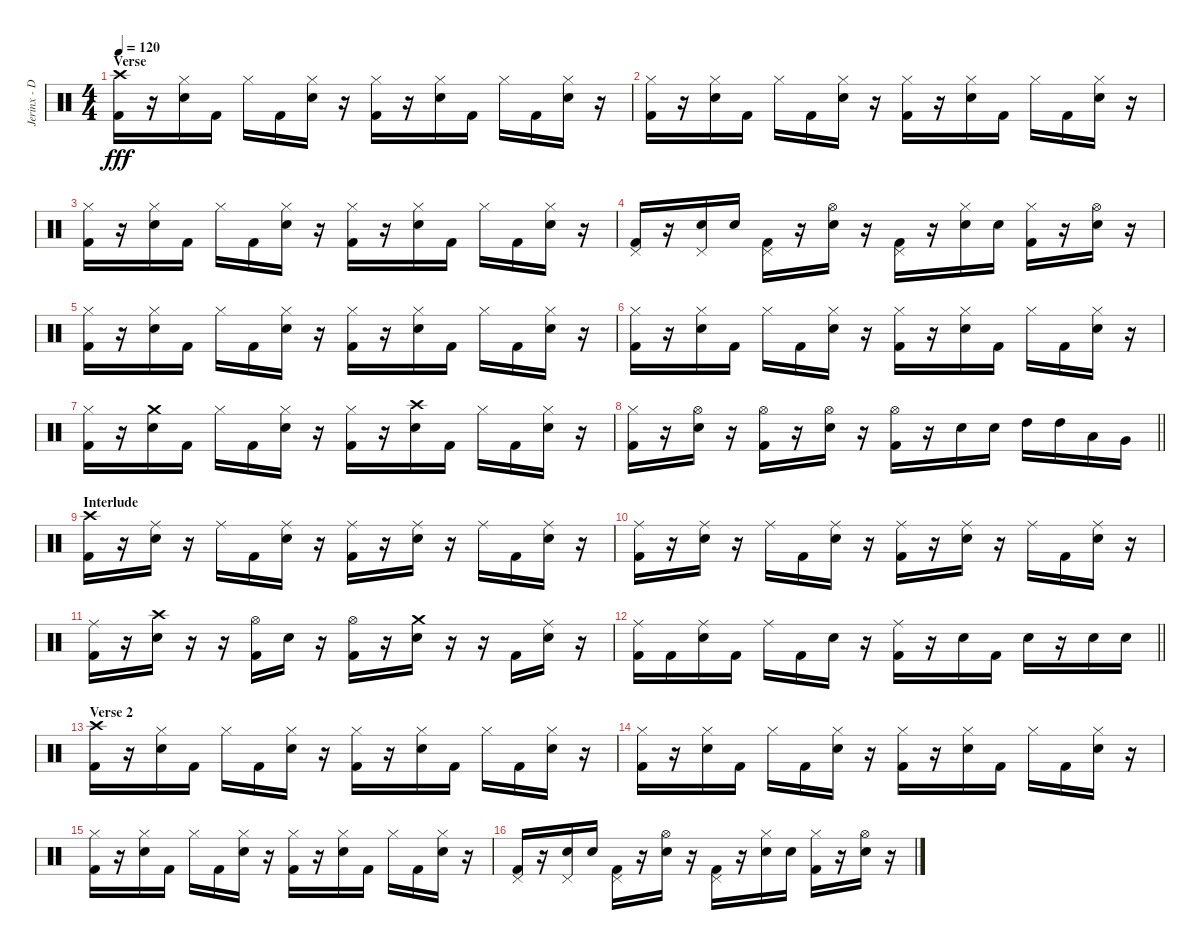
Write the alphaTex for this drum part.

\track ("Jerinx - Drum" "Jerinx - D") {instrument percussion}
\staff {score}
\articulation defaults
\ts (4 4)
\section ("" "Verse")
\tempo 120
\clef neutral
\ks c
("Kick (hit) 2" "Crash high (hit)").16{dy fff} r.16 ("Hi-Hat (closed)" "Snare (hit) 2").16 "Kick (hit) 2".16 "Hi-Hat (closed)".16 "Kick (hit) 2".16 ("Hi-Hat (closed)" "Snare (hit) 2").16 r.16 ("Hi-Hat (closed)" "Kick (hit) 2").16 r.16 ("Hi-Hat (closed)" "Snare (hit) 2").16 "Kick (hit) 2".16 "Hi-Hat (closed)".16 "Kick (hit) 2".16 ("Hi-Hat (closed)" "Snare (hit) 2").16 r.16 |
("Hi-Hat (closed)" "Kick (hit) 2").16 r.16 ("Hi-Hat (closed)" "Snare (hit) 2").16 "Kick (hit) 2".16 "Hi-Hat (closed)".16 "Kick (hit) 2".16 ("Hi-Hat (closed)" "Snare (hit) 2").16 r.16 ("Hi-Hat (closed)" "Kick (hit) 2").16 r.16 ("Hi-Hat (closed)" "Snare (hit) 2").16 "Kick (hit) 2".16 "Hi-Hat (closed)".16 "Kick (hit) 2".16 ("Hi-Hat (closed)" "Snare (hit) 2").16 r.16 |
("Hi-Hat (closed)" "Kick (hit) 2").16 r.16 ("Hi-Hat (closed)" "Snare (hit) 2").16 "Kick (hit) 2".16 "Hi-Hat (closed)".16 "Kick (hit) 2".16 ("Hi-Hat (closed)" "Snare (hit) 2").16 r.16 ("Hi-Hat (closed)" "Kick (hit) 2").16 r.16 ("Hi-Hat (closed)" "Snare (hit) 2").16 "Kick (hit) 2".16 "Hi-Hat (closed)".16 "Kick (hit) 2".16 ("Hi-Hat (closed)" "Snare (hit) 2").16 r.16 |
("Pedal Hi-Hat (hit)" "Kick (hit) 2").16 r.16 ("Pedal Hi-Hat (hit)" "Snare (hit) 2").16 "Snare (hit) 2".16 ("Pedal Hi-Hat (hit)" "Kick (hit) 2").16 r.16 ("Hi-Hat (open)" "Snare (hit) 2").16 r.16 ("Pedal Hi-Hat (hit)" "Kick (hit) 2").16 r.16 ("Hi-Hat (closed)" "Snare (hit) 2").16 "Snare (hit) 2".16 ("Hi-Hat (closed)" "Kick (hit) 2").16 r.16 ("Hi-Hat (open)" "Snare (hit) 2").16 r.16 |
("Hi-Hat (closed)" "Kick (hit) 2").16 r.16 ("Hi-Hat (closed)" "Snare (hit) 2").16 "Kick (hit) 2".16 "Hi-Hat (closed)".16 "Kick (hit) 2".16 ("Hi-Hat (closed)" "Snare (hit) 2").16 r.16 ("Hi-Hat (closed)" "Kick (hit) 2").16 r.16 ("Hi-Hat (closed)" "Snare (hit) 2").16 "Kick (hit) 2".16 "Hi-Hat (closed)".16 "Kick (hit) 2".16 ("Hi-Hat (closed)" "Snare (hit) 2").16 r.16 |
("Hi-Hat (closed)" "Kick (hit) 2").16 r.16 ("Hi-Hat (closed)" "Snare (hit) 2").16 "Kick (hit) 2".16 "Hi-Hat (closed)".16 "Kick (hit) 2".16 ("Hi-Hat (closed)" "Snare (hit) 2").16 r.16 ("Hi-Hat (closed)" "Kick (hit) 2").16 r.16 ("Hi-Hat (closed)" "Snare (hit) 2").16 "Kick (hit) 2".16 "Hi-Hat (closed)".16 "Kick (hit) 2".16 ("Hi-Hat (closed)" "Snare (hit) 2").16 r.16 |
("Hi-Hat (closed)" "Kick (hit) 2").16 r.16 ("Snare (hit) 2" "Crash medium (hit)").16 "Kick (hit) 2".16 "Hi-Hat (closed)".16 "Kick (hit) 2".16 ("Hi-Hat (closed)" "Snare (hit) 2").16 r.16 ("Hi-Hat (closed)" "Kick (hit) 2").16 r.16 ("Snare (hit) 2" "Crash high (hit)").16 "Kick (hit) 2".16 "Hi-Hat (closed)".16 "Kick (hit) 2".16 ("Hi-Hat (closed)" "Snare (hit) 2").16 r.16 |
\barLineRight lightlight
("Hi-Hat (closed)" "Kick (hit) 2").16 r.16 ("Hi-Hat (open)" "Snare (hit) 2").16 r.16 ("Hi-Hat (open)" "Kick (hit) 2").16 r.16 ("Hi-Hat (open)" "Snare (hit) 2").16 r.16 ("Hi-Hat (open)" "Kick (hit) 2").16 r.16 "Snare (hit) 2".16 "Snare (hit) 2".16 "High Tom (hit)".16 "High Tom (hit)".16 "Low Tom (hit)".16 "Very Low Tom (hit)".16 |
\section ("" "Interlude")
("Kick (hit) 2" "Crash high (hit)").16 r.16 ("Snare (hit) 2" "Ride (middle)").16 r.16 "Ride (middle)".16 "Kick (hit) 2".16 ("Snare (hit) 2" "Ride (middle)").16 r.16 ("Kick (hit) 2" "Ride (middle)").16 r.16 ("Snare (hit) 2" "Ride (middle)").16 r.16 "Ride (middle)".16 "Kick (hit) 2".16 ("Snare (hit) 2" "Ride (middle)").16 r.16 |
("Kick (hit) 2" "Ride (middle)").16 r.16 ("Snare (hit) 2" "Ride (middle)").16 r.16 "Ride (middle)".16 "Kick (hit) 2".16 ("Snare (hit) 2" "Ride (middle)").16 r.16 ("Kick (hit) 2" "Ride (middle)").16 r.16 ("Snare (hit) 2" "Ride (middle)").16 r.16 "Ride (middle)".16 "Kick (hit) 2".16 ("Snare (hit) 2" "Ride (middle)").16 r.16 |
("Kick (hit) 2" "Ride (middle)").16 r.16 ("Snare (hit) 2" "Crash high (hit)").16 r.16 r.16 ("Hi-Hat (open)" "Kick (hit) 2").16 "Snare (hit) 2".16 r.16 ("Hi-Hat (open)" "Kick (hit) 2").16 r.16 ("Snare (hit) 2" "Crash medium (hit)").16 r.16 r.16 "Kick (hit) 2".16 ("Snare (hit) 2" "Ride (middle)").16 r.16 |
\barLineRight lightlight
("Kick (hit) 2" "Ride (middle)").16 "Kick (hit) 2".16 ("Snare (hit) 2" "Ride (middle)").16 "Kick (hit) 2".16 "Ride (middle)".16 "Kick (hit) 2".16 "Snare (hit) 2".16 r.16 ("Kick (hit) 2" "Ride (middle)").16 r.16 "Snare (hit) 2".16 "Kick (hit) 2".16 "Snare (hit) 2".16 r.16 "Snare (hit) 2".16 "Snare (hit) 2".16 |
\section ("" "Verse 2")
("Kick (hit) 2" "Crash high (hit)").16 r.16 ("Hi-Hat (closed)" "Snare (hit) 2").16 "Kick (hit) 2".16 "Hi-Hat (closed)".16 "Kick (hit) 2".16 ("Hi-Hat (closed)" "Snare (hit) 2").16 r.16 ("Hi-Hat (closed)" "Kick (hit) 2").16 r.16 ("Hi-Hat (closed)" "Snare (hit) 2").16 "Kick (hit) 2".16 "Hi-Hat (closed)".16 "Kick (hit) 2".16 ("Hi-Hat (closed)" "Snare (hit) 2").16 r.16 |
("Hi-Hat (closed)" "Kick (hit) 2").16 r.16 ("Hi-Hat (closed)" "Snare (hit) 2").16 "Kick (hit) 2".16 "Hi-Hat (closed)".16 "Kick (hit) 2".16 ("Hi-Hat (closed)" "Snare (hit) 2").16 r.16 ("Hi-Hat (closed)" "Kick (hit) 2").16 r.16 ("Hi-Hat (closed)" "Snare (hit) 2").16 "Kick (hit) 2".16 "Hi-Hat (closed)".16 "Kick (hit) 2".16 ("Hi-Hat (closed)" "Snare (hit) 2").16 r.16 |
("Hi-Hat (closed)" "Kick (hit) 2").16 r.16 ("Hi-Hat (closed)" "Snare (hit) 2").16 "Kick (hit) 2".16 "Hi-Hat (closed)".16 "Kick (hit) 2".16 ("Hi-Hat (closed)" "Snare (hit) 2").16 r.16 ("Hi-Hat (closed)" "Kick (hit) 2").16 r.16 ("Hi-Hat (closed)" "Snare (hit) 2").16 "Kick (hit) 2".16 "Hi-Hat (closed)".16 "Kick (hit) 2".16 ("Hi-Hat (closed)" "Snare (hit) 2").16 r.16 |
("Pedal Hi-Hat (hit)" "Kick (hit) 2").16 r.16 ("Pedal Hi-Hat (hit)" "Snare (hit) 2").16 "Snare (hit) 2".16 ("Pedal Hi-Hat (hit)" "Kick (hit) 2").16 r.16 ("Hi-Hat (open)" "Snare (hit) 2").16 r.16 ("Pedal Hi-Hat (hit)" "Kick (hit) 2").16 r.16 ("Hi-Hat (closed)" "Snare (hit) 2").16 "Snare (hit) 2".16 ("Hi-Hat (closed)" "Kick (hit) 2").16 r.16 ("Hi-Hat (open)" "Snare (hit) 2").16 r.16
